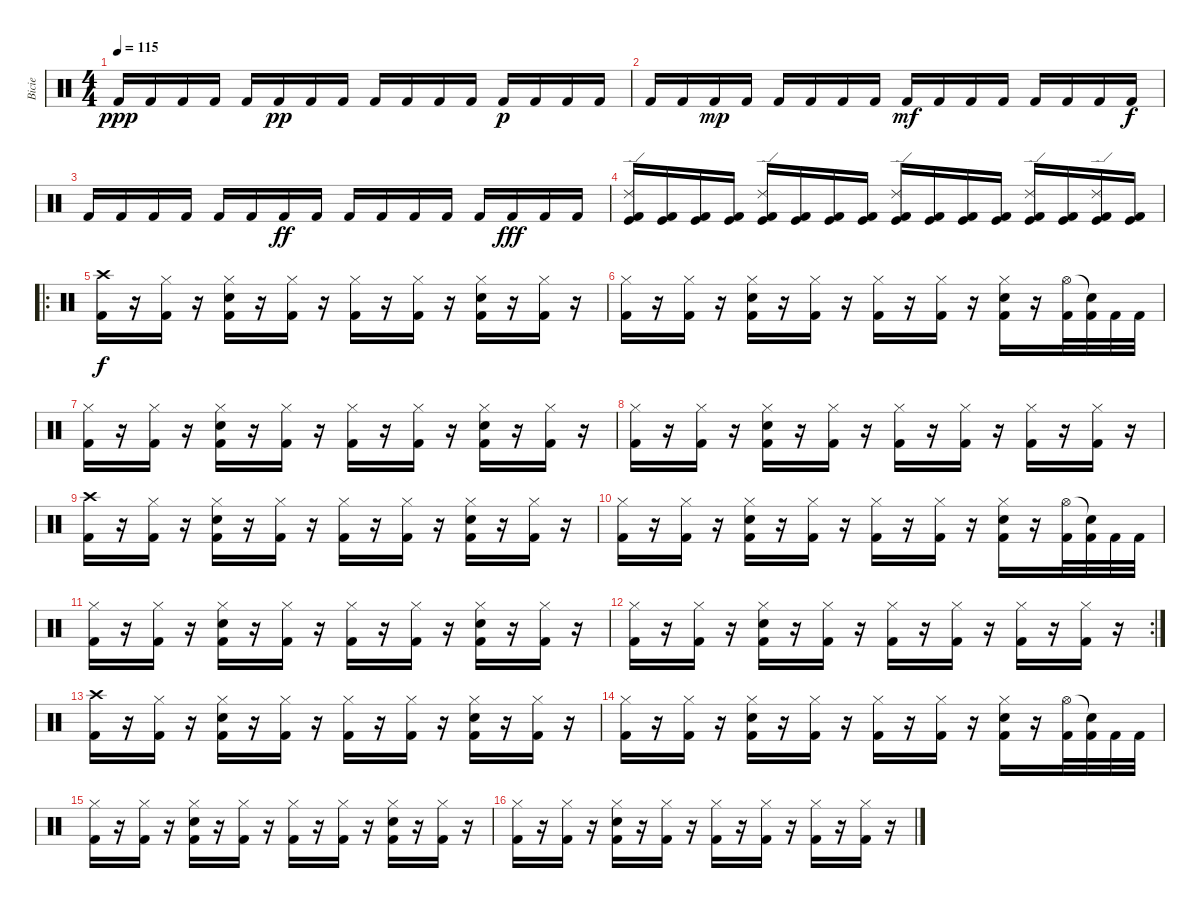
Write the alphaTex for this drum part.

\track ("Bicie" "Bicie") {instrument percussion}
\staff {score}
\articulation defaults
\ts (4 4)
\tempo 115
\clef neutral
\ks c "Kick (hit) 2".16{dy ppp} "Kick (hit) 2".16 "Kick (hit) 2".16 "Kick (hit) 2".16 "Kick (hit) 2".16 "Kick (hit) 2".16{dy pp} "Kick (hit) 2".16 "Kick (hit) 2".16 "Kick (hit) 2".16 "Kick (hit) 2".16 "Kick (hit) 2".16 "Kick (hit) 2".16 "Kick (hit) 2".16{dy p} "Kick (hit) 2".16 "Kick (hit) 2".16 "Kick (hit) 2".16
|
"Kick (hit) 2".16 "Kick (hit) 2".16 "Kick (hit) 2".16{dy mp} "Kick (hit) 2".16 "Kick (hit) 2".16 "Kick (hit) 2".16 "Kick (hit) 2".16 "Kick (hit) 2".16 "Kick (hit) 2".16{dy mf} "Kick (hit) 2".16 "Kick (hit) 2".16 "Kick (hit) 2".16 "Kick (hit) 2".16 "Kick (hit) 2".16 "Kick (hit) 2".16 "Kick (hit) 2".16{dy f} |
"Kick (hit) 2".16 "Kick (hit) 2".16 "Kick (hit) 2".16 "Kick (hit) 2".16 "Kick (hit) 2".16 "Kick (hit) 2".16 "Kick (hit) 2".16{dy ff} "Kick (hit) 2".16 "Kick (hit) 2".16 "Kick (hit) 2".16 "Kick (hit) 2".16 "Kick (hit) 2".16 "Kick (hit) 2".16 "Kick (hit) 2".16{dy fff} "Kick (hit) 2".16 "Kick (hit) 2".16 |
("Ride (edge) 2" "Kick (hit)" "Kick (hit) 2").16 ("Kick (hit)" "Kick (hit) 2").16 ("Kick (hit)" "Kick (hit) 2").16 ("Kick (hit)" "Kick (hit) 2").16 ("Ride (edge) 2" "Kick (hit)" "Kick (hit) 2").16 ("Kick (hit)" "Kick (hit) 2").16 ("Kick (hit)" "Kick (hit) 2").16 ("Kick (hit)" "Kick (hit) 2").16 ("Ride (edge) 2" "Kick (hit)" "Kick (hit) 2").16 ("Kick (hit)" "Kick (hit) 2").16 ("Kick (hit)" "Kick (hit) 2").16 ("Kick (hit)" "Kick (hit) 2").16 ("Ride (edge) 2" "Kick (hit)" "Kick (hit) 2").16 ("Kick (hit)" "Kick (hit) 2").16 ("Ride (edge) 2" "Kick (hit)" "Kick (hit) 2").16 ("Kick (hit)" "Kick (hit) 2").16 |
\ro
("Crash high (hit)" "Kick (hit) 2").16{dy f} r.16 ("Hi-Hat (closed)" "Kick (hit) 2").16 r.16 ("Hi-Hat (closed)" "Electric Snare (hit)" "Kick (hit) 2").16 r.16 ("Hi-Hat (closed)" "Kick (hit) 2").16 r.16 ("Hi-Hat (closed)" "Kick (hit) 2").16 r.16 ("Hi-Hat (closed)" "Kick (hit) 2").16 r.16 ("Hi-Hat (closed)" "Electric Snare (hit)" "Kick (hit) 2").16 r.16 ("Hi-Hat (closed)" "Kick (hit) 2").16 r.16 |
("Hi-Hat (closed)" "Kick (hit) 2").16 r.16 ("Hi-Hat (closed)" "Kick (hit) 2").16 r.16 ("Hi-Hat (closed)" "Electric Snare (hit)" "Kick (hit) 2").16 r.16 ("Hi-Hat (closed)" "Kick (hit) 2").16 r.16 ("Hi-Hat (closed)" "Kick (hit) 2").16 r.16 ("Hi-Hat (closed)" "Kick (hit) 2").16 r.16 ("Hi-Hat (closed)" "Electric Snare (hit)" "Kick (hit) 2").16 r.16 ("Hi-Hat (open)" "Kick (hit) 2").32 ("Snare (hit)"{t} "Kick (hit) 2").32 "Kick (hit) 2".32 "Kick (hit) 2".32 |
("Hi-Hat (closed)" "Kick (hit) 2").16 r.16 ("Hi-Hat (closed)" "Kick (hit) 2").16 r.16 ("Hi-Hat (closed)" "Electric Snare (hit)" "Kick (hit) 2").16 r.16 ("Hi-Hat (closed)" "Kick (hit) 2").16 r.16 ("Hi-Hat (closed)" "Kick (hit) 2").16 r.16 ("Hi-Hat (closed)" "Kick (hit) 2").16 r.16 ("Hi-Hat (closed)" "Electric Snare (hit)" "Kick (hit) 2").16 r.16 ("Hi-Hat (closed)" "Kick (hit) 2").16 r.16 |
("Hi-Hat (closed)" "Kick (hit) 2").16 r.16 ("Hi-Hat (closed)" "Kick (hit) 2").16 r.16 ("Hi-Hat (closed)" "Electric Snare (hit)" "Kick (hit) 2").16 r.16 ("Hi-Hat (closed)" "Kick (hit) 2").16 r.16 ("Hi-Hat (closed)" "Kick (hit) 2").16 r.16 ("Hi-Hat (closed)" "Kick (hit) 2").16 r.16 ("Hi-Hat (closed)" "Kick (hit) 2").16 r.16 ("Hi-Hat (closed)" "Kick (hit) 2").16 r.16 |
("Crash high (hit)" "Kick (hit) 2").16 r.16 ("Hi-Hat (closed)" "Kick (hit) 2").16 r.16 ("Hi-Hat (closed)" "Electric Snare (hit)" "Kick (hit) 2").16 r.16 ("Hi-Hat (closed)" "Kick (hit) 2").16 r.16 ("Hi-Hat (closed)" "Kick (hit) 2").16 r.16 ("Hi-Hat (closed)" "Kick (hit) 2").16 r.16 ("Hi-Hat (closed)" "Electric Snare (hit)" "Kick (hit) 2").16 r.16 ("Hi-Hat (closed)" "Kick (hit) 2").16 r.16 |
("Hi-Hat (closed)" "Kick (hit) 2").16 r.16 ("Hi-Hat (closed)" "Kick (hit) 2").16 r.16 ("Hi-Hat (closed)" "Electric Snare (hit)" "Kick (hit) 2").16 r.16 ("Hi-Hat (closed)" "Kick (hit) 2").16 r.16 ("Hi-Hat (closed)" "Kick (hit) 2").16 r.16 ("Hi-Hat (closed)" "Kick (hit) 2").16 r.16 ("Hi-Hat (closed)" "Electric Snare (hit)" "Kick (hit) 2").16 r.16 ("Hi-Hat (open)" "Kick (hit) 2").32 ("Snare (hit)"{t} "Kick (hit) 2").32 "Kick (hit) 2".32 "Kick (hit) 2".32 |
("Hi-Hat (closed)" "Kick (hit) 2").16 r.16 ("Hi-Hat (closed)" "Kick (hit) 2").16 r.16 ("Hi-Hat (closed)" "Electric Snare (hit)" "Kick (hit) 2").16 r.16 ("Hi-Hat (closed)" "Kick (hit) 2").16 r.16 ("Hi-Hat (closed)" "Kick (hit) 2").16 r.16 ("Hi-Hat (closed)" "Kick (hit) 2").16 r.16 ("Hi-Hat (closed)" "Electric Snare (hit)" "Kick (hit) 2").16 r.16 ("Hi-Hat (closed)" "Kick (hit) 2").16 r.16 |
\rc 2
("Hi-Hat (closed)" "Kick (hit) 2").16 r.16 ("Hi-Hat (closed)" "Kick (hit) 2").16 r.16 ("Hi-Hat (closed)" "Electric Snare (hit)" "Kick (hit) 2").16 r.16 ("Hi-Hat (closed)" "Kick (hit) 2").16 r.16 ("Hi-Hat (closed)" "Kick (hit) 2").16 r.16 ("Hi-Hat (closed)" "Kick (hit) 2").16 r.16 ("Hi-Hat (closed)" "Kick (hit) 2").16 r.16 ("Hi-Hat (closed)" "Kick (hit) 2").16 r.16 |
("Crash high (hit)" "Kick (hit) 2").16 r.16 ("Hi-Hat (closed)" "Kick (hit) 2").16 r.16 ("Hi-Hat (closed)" "Electric Snare (hit)" "Kick (hit) 2").16 r.16 ("Hi-Hat (closed)" "Kick (hit) 2").16 r.16 ("Hi-Hat (closed)" "Kick (hit) 2").16 r.16 ("Hi-Hat (closed)" "Kick (hit) 2").16 r.16 ("Hi-Hat (closed)" "Electric Snare (hit)" "Kick (hit) 2").16 r.16 ("Hi-Hat (closed)" "Kick (hit) 2").16 r.16 |
("Hi-Hat (closed)" "Kick (hit) 2").16 r.16 ("Hi-Hat (closed)" "Kick (hit) 2").16 r.16 ("Hi-Hat (closed)" "Electric Snare (hit)" "Kick (hit) 2").16 r.16 ("Hi-Hat (closed)" "Kick (hit) 2").16 r.16 ("Hi-Hat (closed)" "Kick (hit) 2").16 r.16 ("Hi-Hat (closed)" "Kick (hit) 2").16 r.16 ("Hi-Hat (closed)" "Electric Snare (hit)" "Kick (hit) 2").16 r.16 ("Hi-Hat (open)" "Kick (hit) 2").32 ("Snare (hit)"{t} "Kick (hit) 2").32 "Kick (hit) 2".32 "Kick (hit) 2".32 |
("Hi-Hat (closed)" "Kick (hit) 2").16 r.16 ("Hi-Hat (closed)" "Kick (hit) 2").16 r.16 ("Hi-Hat (closed)" "Electric Snare (hit)" "Kick (hit) 2").16 r.16 ("Hi-Hat (closed)" "Kick (hit) 2").16 r.16 ("Hi-Hat (closed)" "Kick (hit) 2").16 r.16 ("Hi-Hat (closed)" "Kick (hit) 2").16 r.16 ("Hi-Hat (closed)" "Electric Snare (hit)" "Kick (hit) 2").16 r.16 ("Hi-Hat (closed)" "Kick (hit) 2").16 r.16 |
("Hi-Hat (closed)" "Kick (hit) 2").16 r.16 ("Hi-Hat (closed)" "Kick (hit) 2").16 r.16 ("Hi-Hat (closed)" "Electric Snare (hit)" "Kick (hit) 2").16 r.16 ("Hi-Hat (closed)" "Kick (hit) 2").16 r.16 ("Hi-Hat (closed)" "Kick (hit) 2").16 r.16 ("Hi-Hat (closed)" "Kick (hit) 2").16 r.16 ("Hi-Hat (closed)" "Kick (hit) 2").16 r.16 ("Hi-Hat (closed)" "Kick (hit) 2").16 r.16
